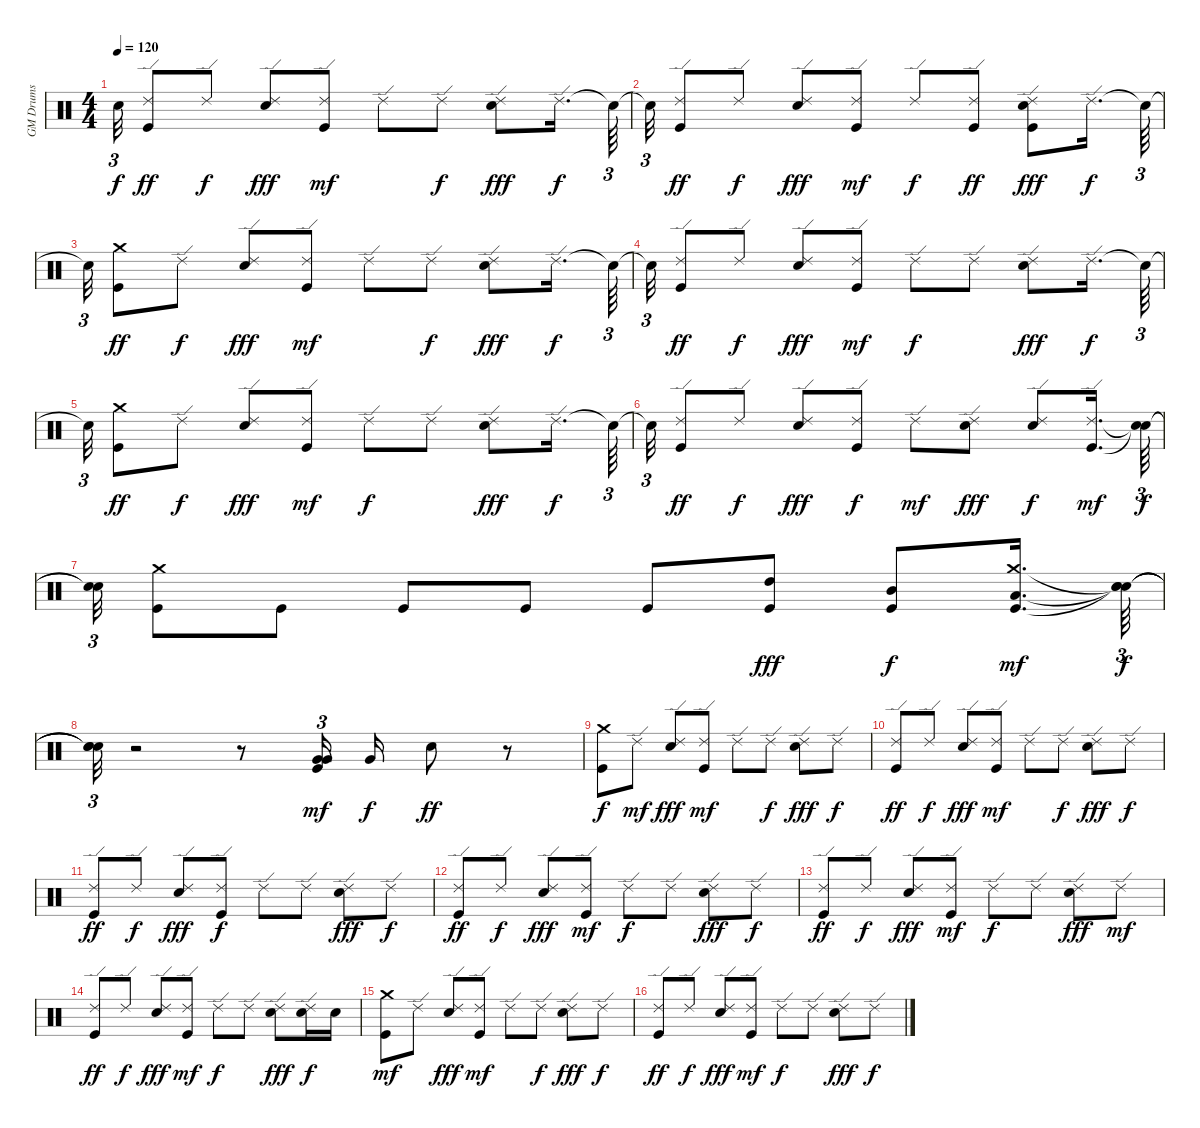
\track ("GM Drums" "GM Drums") {instrument percussion}
\staff {score}
\articulation defaults
\ts (4 4)
\tempo 120
\clef neutral
\ks c "Snare (hit)"{t}.32{tu (3 2) dy f}
("Kick (hit)" "Ride (edge) 2").8{dy ff} "Ride (edge) 2".8{dy f} ("Snare (hit) 2" "Ride (edge) 2").8{dy fff} ("Kick (hit)" "Ride (edge) 2").8{dy mf} "Ride (edge) 2".8 "Ride (edge) 2".8{dy f} ("Snare (hit) 2" "Ride (edge) 2").8{dy fff} "Ride (edge) 2".16{d dy f} "Snare (hit)"{t}.64{tu (3 2)} |
"Snare (hit)"{t}.32{tu (3 2)} ("Kick (hit)" "Ride (edge) 2").8{dy ff} "Ride (edge) 2".8{dy f} ("Snare (hit) 2" "Ride (edge) 2").8{dy fff} ("Kick (hit)" "Ride (edge) 2").8{dy mf} "Ride (edge) 2".8{dy f} ("Kick (hit)" "Ride (edge) 2").8{dy ff} ("Kick (hit)" "Snare (hit) 2" "Ride (edge) 2").8{dy fff} "Ride (edge) 2".16{d dy f} "Snare (hit)"{t}.64{tu (3 2)} |
"Snare (hit)"{t}.32{tu (3 2)} ("Kick (hit)" "Crash medium (hit)").8{dy ff} "Ride (edge) 2".8{dy f} ("Snare (hit) 2" "Ride (edge) 2").8{dy fff} ("Kick (hit)" "Ride (edge) 2").8{dy mf} "Ride (edge) 2".8 "Ride (edge) 2".8{dy f} ("Snare (hit) 2" "Ride (edge) 2").8{dy fff} "Ride (edge) 2".16{d dy f} "Snare (hit)"{t}.64{tu (3 2)} |
"Snare (hit)"{t}.32{tu (3 2)} ("Kick (hit)" "Ride (edge) 2").8{dy ff} "Ride (edge) 2".8{dy f} ("Snare (hit) 2" "Ride (edge) 2").8{dy fff} ("Kick (hit)" "Ride (edge) 2").8{dy mf} "Ride (edge) 2".8{dy f} "Ride (edge) 2".8 ("Snare (hit) 2" "Ride (edge) 2").8{dy fff} "Ride (edge) 2".16{d dy f} "Snare (hit)"{t}.64{tu (3 2)} |
"Snare (hit)"{t}.32{tu (3 2)} ("Kick (hit)" "Crash medium (hit)").8{dy ff} "Ride (edge) 2".8{dy f} ("Snare (hit) 2" "Ride (edge) 2").8{dy fff} ("Kick (hit)" "Ride (edge) 2").8{dy mf} "Ride (edge) 2".8{dy f} "Ride (edge) 2".8 ("Snare (hit) 2" "Ride (edge) 2").8{dy fff} "Ride (edge) 2".16{d dy f} "Snare (hit)"{t}.64{tu (3 2)} |
"Snare (hit)"{t}.32{tu (3 2)} ("Kick (hit)" "Ride (edge) 2").8{dy ff} "Ride (edge) 2".8{dy f} ("Snare (hit) 2" "Ride (edge) 2").8{dy fff} ("Kick (hit)" "Ride (edge) 2").8{dy f} "Ride (edge) 2".8{dy mf} ("Snare (hit) 2" "Ride (edge) 2").8{dy fff} ("Snare (hit) 2" "Ride (edge) 2").8{dy f} ("Kick (hit)" "Ride (edge) 2").16{d dy mf} ("Snare (hit)"{t} "Snare (hit)"{t}).64{tu (3 2) dy f} |
("Snare (hit)"{t} "Snare (hit)"{t}).32{tu (3 2)} ("Kick (hit)" "Crash medium (hit)").8 "Kick (hit)".8 "Kick (hit)".8 "Kick (hit)".8 "Kick (hit)".8 ("Kick (hit)" "High Tom (hit)").8{dy fff} ("Kick (hit)" "Mid Tom (hit)").8{dy f} ("Kick (hit)" "Low Tom (hit)" "Crash medium (hit)").16{d dy mf} ("Snare (hit)"{t} "Snare (hit)"{t} "Snare (hit)"{t}).64{tu (3 2) dy f} |
("Snare (hit)"{t} "Snare (hit)"{t} "Snare (hit)"{t}).32{tu (3 2)} r.2 r.8 ("Kick (hit)" "Very Low Tom (hit)" "Very Low Tom (hit)").16{tu (3 2) dy mf} "Very Low Tom (hit)".16{dy f} "Snare (hit) 2".8{dy ff} r.8 |
("Kick (hit)" "Crash medium (hit)").8{dy f} "Ride (edge) 2".8{dy mf} ("Snare (hit) 2" "Ride (edge) 2").8{dy fff} ("Kick (hit)" "Ride (edge) 2").8{dy mf} "Ride (edge) 2".8 "Ride (edge) 2".8{dy f} ("Snare (hit) 2" "Ride (edge) 2").8{dy fff} "Ride (edge) 2".8{dy f} |
("Kick (hit)" "Ride (edge) 2").8{dy ff} "Ride (edge) 2".8{dy f} ("Snare (hit) 2" "Ride (edge) 2").8{dy fff} ("Kick (hit)" "Ride (edge) 2").8{dy mf} "Ride (edge) 2".8 "Ride (edge) 2".8{dy f} ("Snare (hit) 2" "Ride (edge) 2").8{dy fff} "Ride (edge) 2".8{dy f} |
("Kick (hit)" "Ride (edge) 2").8{dy ff} "Ride (edge) 2".8{dy f} ("Snare (hit) 2" "Ride (edge) 2").8{dy fff} ("Kick (hit)" "Ride (edge) 2").8{dy f} "Ride (edge) 2".8 "Ride (edge) 2".8 ("Snare (hit) 2" "Ride (edge) 2").8{dy fff} "Ride (edge) 2".8{dy f} |
("Kick (hit)" "Ride (edge) 2").8{dy ff} "Ride (edge) 2".8{dy f} ("Snare (hit) 2" "Ride (edge) 2").8{dy fff} ("Kick (hit)" "Ride (edge) 2").8{dy mf} "Ride (edge) 2".8{dy f} "Ride (edge) 2".8 ("Snare (hit) 2" "Ride (edge) 2").8{dy fff} "Ride (edge) 2".8{dy f} |
("Kick (hit)" "Ride (edge) 2").8{dy ff} "Ride (edge) 2".8{dy f} ("Snare (hit) 2" "Ride (edge) 2").8{dy fff} ("Kick (hit)" "Ride (edge) 2").8{dy mf} "Ride (edge) 2".8{dy f} "Ride (edge) 2".8 ("Snare (hit) 2" "Ride (edge) 2").8{dy fff} "Ride (edge) 2".8{dy mf} |
("Kick (hit)" "Ride (edge) 2").8{dy ff} "Ride (edge) 2".8{dy f} ("Snare (hit) 2" "Ride (edge) 2").8{dy fff} ("Kick (hit)" "Ride (edge) 2").8{dy mf} "Ride (edge) 2".8{dy f} "Ride (edge) 2".8 ("Snare (hit) 2" "Ride (edge) 2").8{dy fff} ("Snare (hit) 2" "Ride (edge) 2").16{dy f} "Snare (hit) 2".16 |
("Kick (hit)" "Crash medium (hit)").8{dy mf} "Ride (edge) 2".8 ("Snare (hit) 2" "Ride (edge) 2").8{dy fff} ("Kick (hit)" "Ride (edge) 2").8{dy mf} "Ride (edge) 2".8 "Ride (edge) 2".8{dy f} ("Snare (hit) 2" "Ride (edge) 2").8{dy fff} "Ride (edge) 2".8{dy f} |
("Kick (hit)" "Ride (edge) 2").8{dy ff} "Ride (edge) 2".8{dy f} ("Snare (hit) 2" "Ride (edge) 2").8{dy fff} ("Kick (hit)" "Ride (edge) 2").8{dy mf} "Ride (edge) 2".8{dy f} "Ride (edge) 2".8 ("Snare (hit) 2" "Ride (edge) 2").8{dy fff} "Ride (edge) 2".8{dy f}
